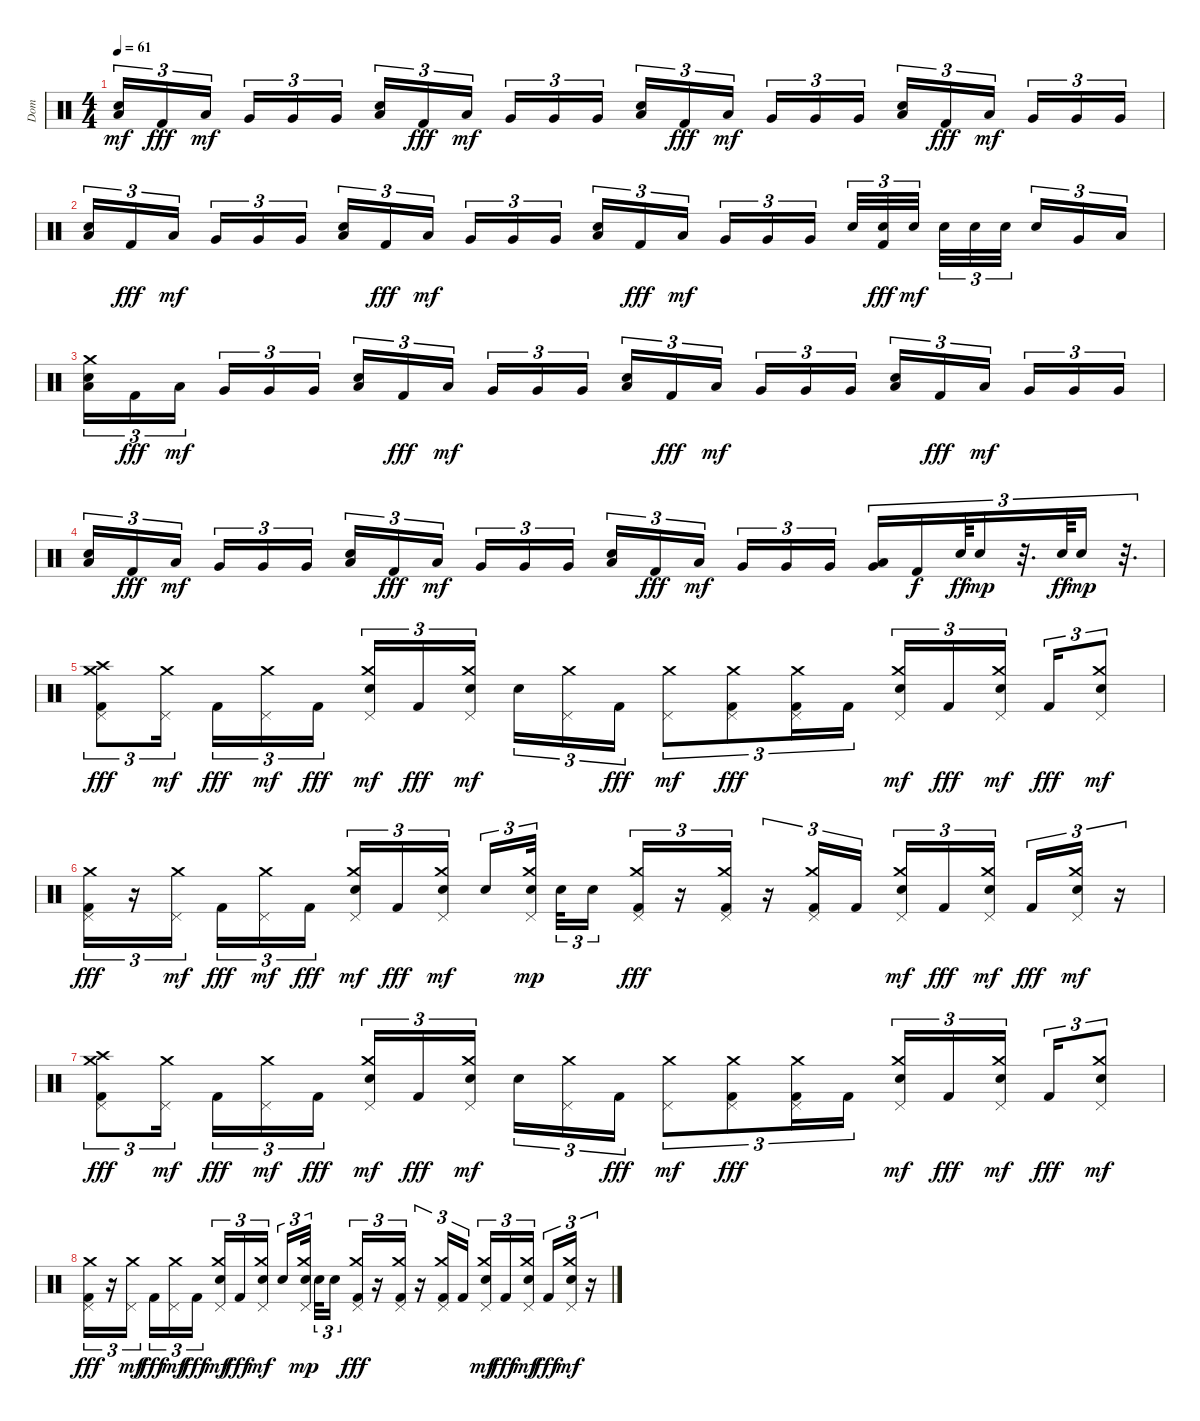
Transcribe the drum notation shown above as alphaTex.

\track ("Dom" "Dom") {instrument percussion}
\staff {score}
\articulation defaults
\ts (4 4)
\tempo 61
\clef neutral
\ks c
("Electric Snare (hit)" "Low Floor Tom (hit)").16{tu (3 2) dy mf} "Kick (hit) 2".16{tu (3 2) dy fff} "Low Floor Tom (hit)".16{tu (3 2) dy mf beam splitsecondary} "Very Low Tom (hit)".16{tu (3 2)} "Very Low Tom (hit)".16{tu (3 2)} "Very Low Tom (hit)".16{tu (3 2)} ("Electric Snare (hit)" "Low Floor Tom (hit)").16{tu (3 2)} "Kick (hit) 2".16{tu (3 2) dy fff} "Low Floor Tom (hit)".16{tu (3 2) dy mf beam splitsecondary} "Very Low Tom (hit)".16{tu (3 2)} "Very Low Tom (hit)".16{tu (3 2)} "Very Low Tom (hit)".16{tu (3 2)} ("Electric Snare (hit)" "Low Floor Tom (hit)").16{tu (3 2)} "Kick (hit) 2".16{tu (3 2) dy fff} "Low Floor Tom (hit)".16{tu (3 2) dy mf beam splitsecondary} "Very Low Tom (hit)".16{tu (3 2)} "Very Low Tom (hit)".16{tu (3 2)} "Very Low Tom (hit)".16{tu (3 2)} ("Electric Snare (hit)" "Low Floor Tom (hit)").16{tu (3 2)} "Kick (hit) 2".16{tu (3 2) dy fff} "Low Floor Tom (hit)".16{tu (3 2) dy mf beam splitsecondary} "Very Low Tom (hit)".16{tu (3 2)} "Very Low Tom (hit)".16{tu (3 2)} "Very Low Tom (hit)".16{tu (3 2)} |
("Electric Snare (hit)" "Low Floor Tom (hit)").16{tu (3 2)} "Kick (hit) 2".16{tu (3 2) dy fff} "Low Floor Tom (hit)".16{tu (3 2) dy mf beam splitsecondary} "Very Low Tom (hit)".16{tu (3 2)} "Very Low Tom (hit)".16{tu (3 2)} "Very Low Tom (hit)".16{tu (3 2)} ("Electric Snare (hit)" "Low Floor Tom (hit)").16{tu (3 2)} "Kick (hit) 2".16{tu (3 2) dy fff} "Low Floor Tom (hit)".16{tu (3 2) dy mf beam splitsecondary} "Very Low Tom (hit)".16{tu (3 2)} "Very Low Tom (hit)".16{tu (3 2)} "Very Low Tom (hit)".16{tu (3 2)} ("Electric Snare (hit)" "Low Floor Tom (hit)").16{tu (3 2)} "Kick (hit) 2".16{tu (3 2) dy fff} "Low Floor Tom (hit)".16{tu (3 2) dy mf beam splitsecondary} "Very Low Tom (hit)".16{tu (3 2)} "Very Low Tom (hit)".16{tu (3 2)} "Very Low Tom (hit)".16{tu (3 2)} "Electric Snare (hit)".32{tu (3 2)} ("Electric Snare (hit)" "Kick (hit) 2").32{tu (3 2) dy fff} "Electric Snare (hit)".32{tu (3 2) dy mf beam splitsecondary} "Electric Snare (hit)".32{tu (3 2)} "Electric Snare (hit)".32{tu (3 2)} "Electric Snare (hit)".32{tu (3 2) beam splitsecondary} "Electric Snare (hit)".16{tu (3 2)} "Very Low Tom (hit)".16{tu (3 2)} "Low Floor Tom (hit)".16{tu (3 2)} |
("Crash medium (hit)" "Electric Snare (hit)" "Low Floor Tom (hit)").16{tu (3 2)} "Kick (hit) 2".16{tu (3 2) dy fff} "Low Floor Tom (hit)".16{tu (3 2) dy mf beam splitsecondary} "Very Low Tom (hit)".16{tu (3 2)} "Very Low Tom (hit)".16{tu (3 2)} "Very Low Tom (hit)".16{tu (3 2)} ("Electric Snare (hit)" "Low Floor Tom (hit)").16{tu (3 2)} "Kick (hit) 2".16{tu (3 2) dy fff} "Low Floor Tom (hit)".16{tu (3 2) dy mf beam splitsecondary} "Very Low Tom (hit)".16{tu (3 2)} "Very Low Tom (hit)".16{tu (3 2)} "Very Low Tom (hit)".16{tu (3 2)} ("Electric Snare (hit)" "Low Floor Tom (hit)").16{tu (3 2)} "Kick (hit) 2".16{tu (3 2) dy fff} "Low Floor Tom (hit)".16{tu (3 2) dy mf beam splitsecondary} "Very Low Tom (hit)".16{tu (3 2)} "Very Low Tom (hit)".16{tu (3 2)} "Very Low Tom (hit)".16{tu (3 2)} ("Electric Snare (hit)" "Low Floor Tom (hit)").16{tu (3 2)} "Kick (hit) 2".16{tu (3 2) dy fff} "Low Floor Tom (hit)".16{tu (3 2) dy mf beam splitsecondary} "Very Low Tom (hit)".16{tu (3 2)} "Very Low Tom (hit)".16{tu (3 2)} "Very Low Tom (hit)".16{tu (3 2)} |
("Electric Snare (hit)" "Low Floor Tom (hit)").16{tu (3 2)} "Kick (hit) 2".16{tu (3 2) dy fff} "Low Floor Tom (hit)".16{tu (3 2) dy mf beam splitsecondary} "Very Low Tom (hit)".16{tu (3 2)} "Very Low Tom (hit)".16{tu (3 2)} "Very Low Tom (hit)".16{tu (3 2)} ("Electric Snare (hit)" "Low Floor Tom (hit)").16{tu (3 2)} "Kick (hit) 2".16{tu (3 2) dy fff} "Low Floor Tom (hit)".16{tu (3 2) dy mf beam splitsecondary} "Very Low Tom (hit)".16{tu (3 2)} "Very Low Tom (hit)".16{tu (3 2)} "Very Low Tom (hit)".16{tu (3 2)} ("Electric Snare (hit)" "Low Floor Tom (hit)").16{tu (3 2)} "Kick (hit) 2".16{tu (3 2) dy fff} "Low Floor Tom (hit)".16{tu (3 2) dy mf beam splitsecondary} "Very Low Tom (hit)".16{tu (3 2)} "Very Low Tom (hit)".16{tu (3 2)} "Very Low Tom (hit)".16{tu (3 2)} ("Low Floor Tom (hit)" "Very Low Tom (hit)").16{tu (3 2)} "Kick (hit) 2".16{tu (3 2) dy f} "Electric Snare (hit)".64{tu (3 2) dy ff} "Electric Snare (hit)".16{tu (3 2) dy mp} r.32{d tu (3 2)} "Electric Snare (hit)".64{tu (3 2) dy ff} "Electric Snare (hit)".16{tu (3 2) dy mp} r.32{d tu (3 2)} |
("Crash high (hit)" "Pedal Hi-Hat (hit)" "Crash medium (hit)" "Kick (hit) 2").8{tu (3 2) dy fff} ("Pedal Hi-Hat (hit)" "Crash medium (hit)").16{tu (3 2) dy mf beam splitsecondary} "Kick (hit) 2".16{tu (3 2) dy fff} ("Pedal Hi-Hat (hit)" "Crash medium (hit)").16{tu (3 2) dy mf} "Kick (hit) 2".16{tu (3 2) dy fff} ("Pedal Hi-Hat (hit)" "Crash medium (hit)" "Electric Snare (hit)").16{tu (3 2) dy mf} "Kick (hit) 2".16{tu (3 2) dy fff} ("Pedal Hi-Hat (hit)" "Crash medium (hit)" "Electric Snare (hit)").16{tu (3 2) dy mf beam splitsecondary} "Electric Snare (hit)".16{tu (3 2)} ("Pedal Hi-Hat (hit)" "Crash medium (hit)").16{tu (3 2)} "Kick (hit) 2".16{tu (3 2) dy fff} ("Pedal Hi-Hat (hit)" "Crash medium (hit)").8{tu (3 2) dy mf} ("Pedal Hi-Hat (hit)" "Crash medium (hit)" "Kick (hit) 2").8{tu (3 2) dy fff} ("Pedal Hi-Hat (hit)" "Crash medium (hit)" "Kick (hit) 2").16{tu (3 2)} "Kick (hit) 2".16{tu (3 2)} ("Pedal Hi-Hat (hit)" "Crash medium (hit)" "Electric Snare (hit)").16{tu (3 2) dy mf} "Kick (hit) 2".16{tu (3 2) dy fff} ("Pedal Hi-Hat (hit)" "Crash medium (hit)" "Electric Snare (hit)").16{tu (3 2) dy mf beam splitsecondary} "Kick (hit) 2".16{tu (3 2) dy fff} ("Pedal Hi-Hat (hit)" "Crash medium (hit)" "Electric Snare (hit)").8{tu (3 2) dy mf} |
("Pedal Hi-Hat (hit)" "Crash medium (hit)" "Kick (hit) 2").16{tu (3 2) dy fff} r.16{tu (3 2)} ("Pedal Hi-Hat (hit)" "Crash medium (hit)").16{tu (3 2) dy mf beam splitsecondary} "Kick (hit) 2".16{tu (3 2) dy fff} ("Pedal Hi-Hat (hit)" "Crash medium (hit)").16{tu (3 2) dy mf} "Kick (hit) 2".16{tu (3 2) dy fff} ("Pedal Hi-Hat (hit)" "Crash medium (hit)" "Electric Snare (hit)").16{tu (3 2) dy mf} "Kick (hit) 2".16{tu (3 2) dy fff} ("Pedal Hi-Hat (hit)" "Crash medium (hit)" "Electric Snare (hit)").16{tu (3 2) dy mf beam splitsecondary} "Electric Snare (hit)".16{tu (3 2)} ("Pedal Hi-Hat (hit)" "Crash medium (hit)" "Electric Snare (hit)").32{tu (3 2) dy mp beam splitsecondary} "Electric Snare (hit)".32{tu (3 2)} "Electric Snare (hit)".16{tu (3 2)} ("Pedal Hi-Hat (hit)" "Crash medium (hit)" "Kick (hit) 2").16{tu (3 2) dy fff} r.16{tu (3 2)} ("Pedal Hi-Hat (hit)" "Crash medium (hit)" "Kick (hit) 2").16{tu (3 2)} r.16{tu (3 2)} ("Pedal Hi-Hat (hit)" "Crash medium (hit)" "Kick (hit) 2").16{tu (3 2)} "Kick (hit) 2".16{tu (3 2)} ("Pedal Hi-Hat (hit)" "Crash medium (hit)" "Electric Snare (hit)").16{tu (3 2) dy mf} "Kick (hit) 2".16{tu (3 2) dy fff} ("Pedal Hi-Hat (hit)" "Crash medium (hit)" "Electric Snare (hit)").16{tu (3 2) dy mf beam splitsecondary} "Kick (hit) 2".16{tu (3 2) dy fff} ("Pedal Hi-Hat (hit)" "Crash medium (hit)" "Electric Snare (hit)").16{tu (3 2) dy mf} r.16{tu (3 2)} |
("Crash high (hit)" "Pedal Hi-Hat (hit)" "Crash medium (hit)" "Kick (hit) 2").8{tu (3 2) dy fff} ("Pedal Hi-Hat (hit)" "Crash medium (hit)").16{tu (3 2) dy mf beam splitsecondary} "Kick (hit) 2".16{tu (3 2) dy fff} ("Pedal Hi-Hat (hit)" "Crash medium (hit)").16{tu (3 2) dy mf} "Kick (hit) 2".16{tu (3 2) dy fff} ("Pedal Hi-Hat (hit)" "Crash medium (hit)" "Electric Snare (hit)").16{tu (3 2) dy mf} "Kick (hit) 2".16{tu (3 2) dy fff} ("Pedal Hi-Hat (hit)" "Crash medium (hit)" "Electric Snare (hit)").16{tu (3 2) dy mf beam splitsecondary} "Electric Snare (hit)".16{tu (3 2)} ("Pedal Hi-Hat (hit)" "Crash medium (hit)").16{tu (3 2)} "Kick (hit) 2".16{tu (3 2) dy fff} ("Pedal Hi-Hat (hit)" "Crash medium (hit)").8{tu (3 2) dy mf} ("Pedal Hi-Hat (hit)" "Crash medium (hit)" "Kick (hit) 2").8{tu (3 2) dy fff} ("Pedal Hi-Hat (hit)" "Crash medium (hit)" "Kick (hit) 2").16{tu (3 2)} "Kick (hit) 2".16{tu (3 2)} ("Pedal Hi-Hat (hit)" "Crash medium (hit)" "Electric Snare (hit)").16{tu (3 2) dy mf} "Kick (hit) 2".16{tu (3 2) dy fff} ("Pedal Hi-Hat (hit)" "Crash medium (hit)" "Electric Snare (hit)").16{tu (3 2) dy mf beam splitsecondary} "Kick (hit) 2".16{tu (3 2) dy fff} ("Pedal Hi-Hat (hit)" "Crash medium (hit)" "Electric Snare (hit)").8{tu (3 2) dy mf} |
("Pedal Hi-Hat (hit)" "Crash medium (hit)" "Kick (hit) 2").16{tu (3 2) dy fff} r.16{tu (3 2)} ("Pedal Hi-Hat (hit)" "Crash medium (hit)").16{tu (3 2) dy mf beam splitsecondary} "Kick (hit) 2".16{tu (3 2) dy fff} ("Pedal Hi-Hat (hit)" "Crash medium (hit)").16{tu (3 2) dy mf} "Kick (hit) 2".16{tu (3 2) dy fff} ("Pedal Hi-Hat (hit)" "Crash medium (hit)" "Electric Snare (hit)").16{tu (3 2) dy mf} "Kick (hit) 2".16{tu (3 2) dy fff} ("Pedal Hi-Hat (hit)" "Crash medium (hit)" "Electric Snare (hit)").16{tu (3 2) dy mf beam splitsecondary} "Electric Snare (hit)".16{tu (3 2)} ("Pedal Hi-Hat (hit)" "Crash medium (hit)" "Electric Snare (hit)").32{tu (3 2) dy mp beam splitsecondary} "Electric Snare (hit)".32{tu (3 2)} "Electric Snare (hit)".16{tu (3 2)} ("Pedal Hi-Hat (hit)" "Crash medium (hit)" "Kick (hit) 2").16{tu (3 2) dy fff} r.16{tu (3 2)} ("Pedal Hi-Hat (hit)" "Crash medium (hit)" "Kick (hit) 2").16{tu (3 2)} r.16{tu (3 2)} ("Pedal Hi-Hat (hit)" "Crash medium (hit)" "Kick (hit) 2").16{tu (3 2)} "Kick (hit) 2".16{tu (3 2)} ("Pedal Hi-Hat (hit)" "Crash medium (hit)" "Electric Snare (hit)").16{tu (3 2) dy mf} "Kick (hit) 2".16{tu (3 2) dy fff} ("Pedal Hi-Hat (hit)" "Crash medium (hit)" "Electric Snare (hit)").16{tu (3 2) dy mf beam splitsecondary} "Kick (hit) 2".16{tu (3 2) dy fff} ("Pedal Hi-Hat (hit)" "Crash medium (hit)" "Electric Snare (hit)").16{tu (3 2) dy mf} r.16{tu (3 2)}
